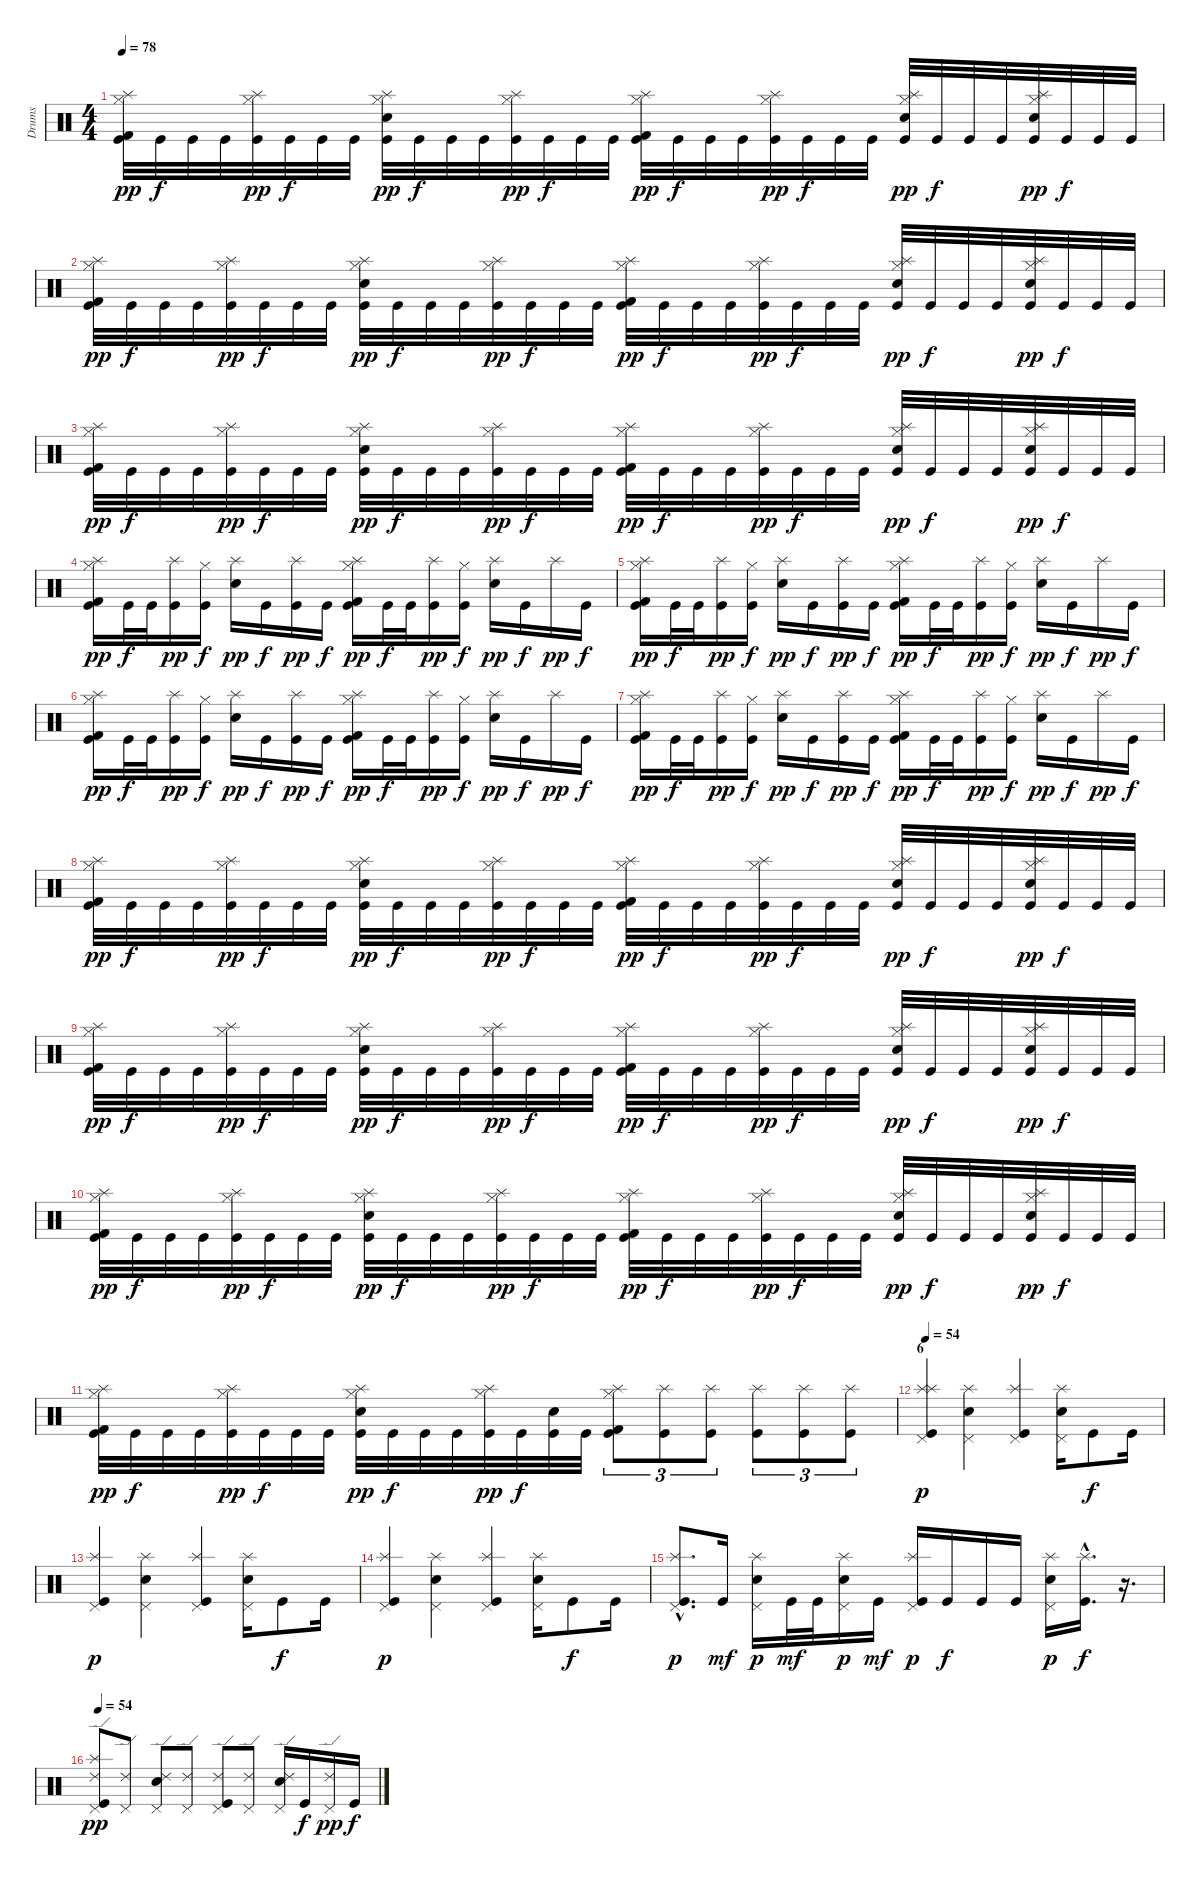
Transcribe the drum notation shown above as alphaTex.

\track ("Drums" "Drums") {instrument percussion}
\staff {score}
\articulation defaults
\ts (4 4)
\tempo 78
\clef neutral
\ks c
("Kick (hit)" "Kick (hit) 2" "Hi-Hat (closed)" "Splash (hit)").32{dy pp} "Kick (hit)".32{dy f} "Kick (hit)".32 "Kick (hit)".32 ("Kick (hit)" "Hi-Hat (closed)" "Splash (hit)").32{dy pp} "Kick (hit)".32{dy f} "Kick (hit)".32 "Kick (hit)".32 ("Kick (hit)" "Electric Snare (hit)" "Hi-Hat (closed)" "Splash (hit)").32{dy pp} "Kick (hit)".32{dy f} "Kick (hit)".32 "Kick (hit)".32 ("Kick (hit)" "Hi-Hat (closed)" "Splash (hit)").32{dy pp} "Kick (hit)".32{dy f} "Kick (hit)".32 "Kick (hit)".32 ("Kick (hit)" "Kick (hit) 2" "Hi-Hat (closed)" "Splash (hit)").32{dy pp} "Kick (hit)".32{dy f} "Kick (hit)".32 "Kick (hit)".32 ("Kick (hit)" "Hi-Hat (closed)" "Splash (hit)").32{dy pp} "Kick (hit)".32{dy f} "Kick (hit)".32 "Kick (hit)".32 ("Kick (hit)" "Electric Snare (hit)" "Hi-Hat (closed)" "Splash (hit)").32{dy pp} "Kick (hit)".32{dy f} "Kick (hit)".32 "Kick (hit)".32 ("Kick (hit)" "Electric Snare (hit)" "Hi-Hat (closed)" "Splash (hit)").32{dy pp} "Kick (hit)".32{dy f} "Kick (hit)".32 "Kick (hit)".32 |
("Kick (hit)" "Kick (hit) 2" "Hi-Hat (closed)" "Splash (hit)").32{dy pp} "Kick (hit)".32{dy f} "Kick (hit)".32 "Kick (hit)".32 ("Kick (hit)" "Hi-Hat (closed)" "Splash (hit)").32{dy pp} "Kick (hit)".32{dy f} "Kick (hit)".32 "Kick (hit)".32 ("Kick (hit)" "Electric Snare (hit)" "Hi-Hat (closed)" "Splash (hit)").32{dy pp} "Kick (hit)".32{dy f} "Kick (hit)".32 "Kick (hit)".32 ("Kick (hit)" "Hi-Hat (closed)" "Splash (hit)").32{dy pp} "Kick (hit)".32{dy f} "Kick (hit)".32 "Kick (hit)".32 ("Kick (hit)" "Kick (hit) 2" "Hi-Hat (closed)" "Splash (hit)").32{dy pp} "Kick (hit)".32{dy f} "Kick (hit)".32 "Kick (hit)".32 ("Kick (hit)" "Hi-Hat (closed)" "Splash (hit)").32{dy pp} "Kick (hit)".32{dy f} "Kick (hit)".32 "Kick (hit)".32 ("Kick (hit)" "Electric Snare (hit)" "Hi-Hat (closed)" "Splash (hit)").32{dy pp} "Kick (hit)".32{dy f} "Kick (hit)".32 "Kick (hit)".32 ("Kick (hit)" "Electric Snare (hit)" "Hi-Hat (closed)" "Splash (hit)").32{dy pp} "Kick (hit)".32{dy f} "Kick (hit)".32 "Kick (hit)".32 |
("Kick (hit)" "Kick (hit) 2" "Hi-Hat (closed)" "Splash (hit)").32{dy pp} "Kick (hit)".32{dy f} "Kick (hit)".32 "Kick (hit)".32 ("Kick (hit)" "Hi-Hat (closed)" "Splash (hit)").32{dy pp} "Kick (hit)".32{dy f} "Kick (hit)".32 "Kick (hit)".32 ("Kick (hit)" "Electric Snare (hit)" "Hi-Hat (closed)" "Splash (hit)").32{dy pp} "Kick (hit)".32{dy f} "Kick (hit)".32 "Kick (hit)".32 ("Kick (hit)" "Hi-Hat (closed)" "Splash (hit)").32{dy pp} "Kick (hit)".32{dy f} "Kick (hit)".32 "Kick (hit)".32 ("Kick (hit)" "Kick (hit) 2" "Hi-Hat (closed)" "Splash (hit)").32{dy pp} "Kick (hit)".32{dy f} "Kick (hit)".32 "Kick (hit)".32 ("Kick (hit)" "Hi-Hat (closed)" "Splash (hit)").32{dy pp} "Kick (hit)".32{dy f} "Kick (hit)".32 "Kick (hit)".32 ("Kick (hit)" "Electric Snare (hit)" "Hi-Hat (closed)" "Splash (hit)").32{dy pp} "Kick (hit)".32{dy f} "Kick (hit)".32 "Kick (hit)".32 ("Kick (hit)" "Electric Snare (hit)" "Hi-Hat (closed)" "Splash (hit)").32{dy pp} "Kick (hit)".32{dy f} "Kick (hit)".32 "Kick (hit)".32 |
("Kick (hit)" "Kick (hit) 2" "Hi-Hat (closed)" "Splash (hit)").16{dy pp} "Kick (hit)".32{dy f} "Kick (hit)".32 ("Kick (hit)" "Splash (hit)").16{dy pp} ("Kick (hit)" "Hi-Hat (closed)").16{dy f} ("Electric Snare (hit)" "Splash (hit)").16{dy pp} "Kick (hit)".16{dy f} ("Kick (hit)" "Splash (hit)").16{dy pp} "Kick (hit)".16{dy f} ("Kick (hit)" "Kick (hit) 2" "Hi-Hat (closed)" "Splash (hit)").16{dy pp} "Kick (hit)".32{dy f} "Kick (hit)".32 ("Kick (hit)" "Splash (hit)").16{dy pp} ("Kick (hit)" "Hi-Hat (closed)").16{dy f} ("Electric Snare (hit)" "Splash (hit)").16{dy pp} "Kick (hit)".16{dy f} "Splash (hit)".16{dy pp} "Kick (hit)".16{dy f} |
("Kick (hit)" "Kick (hit) 2" "Hi-Hat (closed)" "Splash (hit)").16{dy pp} "Kick (hit)".32{dy f} "Kick (hit)".32 ("Kick (hit)" "Splash (hit)").16{dy pp} ("Kick (hit)" "Hi-Hat (closed)").16{dy f} ("Electric Snare (hit)" "Splash (hit)").16{dy pp} "Kick (hit)".16{dy f} ("Kick (hit)" "Splash (hit)").16{dy pp} "Kick (hit)".16{dy f} ("Kick (hit)" "Kick (hit) 2" "Hi-Hat (closed)" "Splash (hit)").16{dy pp} "Kick (hit)".32{dy f} "Kick (hit)".32 ("Kick (hit)" "Splash (hit)").16{dy pp} ("Kick (hit)" "Hi-Hat (closed)").16{dy f} ("Electric Snare (hit)" "Splash (hit)").16{dy pp} "Kick (hit)".16{dy f} "Splash (hit)".16{dy pp} "Kick (hit)".16{dy f} |
("Kick (hit)" "Kick (hit) 2" "Hi-Hat (closed)" "Splash (hit)").16{dy pp} "Kick (hit)".32{dy f} "Kick (hit)".32 ("Kick (hit)" "Splash (hit)").16{dy pp} ("Kick (hit)" "Hi-Hat (closed)").16{dy f} ("Electric Snare (hit)" "Splash (hit)").16{dy pp} "Kick (hit)".16{dy f} ("Kick (hit)" "Splash (hit)").16{dy pp} "Kick (hit)".16{dy f} ("Kick (hit)" "Kick (hit) 2" "Hi-Hat (closed)" "Splash (hit)").16{dy pp} "Kick (hit)".32{dy f} "Kick (hit)".32 ("Kick (hit)" "Splash (hit)").16{dy pp} ("Kick (hit)" "Hi-Hat (closed)").16{dy f} ("Electric Snare (hit)" "Splash (hit)").16{dy pp} "Kick (hit)".16{dy f} "Splash (hit)".16{dy pp} "Kick (hit)".16{dy f} |
("Kick (hit)" "Kick (hit) 2" "Hi-Hat (closed)" "Splash (hit)").16{dy pp} "Kick (hit)".32{dy f} "Kick (hit)".32 ("Kick (hit)" "Splash (hit)").16{dy pp} ("Kick (hit)" "Hi-Hat (closed)").16{dy f} ("Electric Snare (hit)" "Splash (hit)").16{dy pp} "Kick (hit)".16{dy f} ("Kick (hit)" "Splash (hit)").16{dy pp} "Kick (hit)".16{dy f} ("Kick (hit)" "Kick (hit) 2" "Hi-Hat (closed)" "Splash (hit)").16{dy pp} "Kick (hit)".32{dy f} "Kick (hit)".32 ("Kick (hit)" "Splash (hit)").16{dy pp} ("Kick (hit)" "Hi-Hat (closed)").16{dy f} ("Electric Snare (hit)" "Splash (hit)").16{dy pp} "Kick (hit)".16{dy f} "Splash (hit)".16{dy pp} "Kick (hit)".16{dy f} |
("Kick (hit)" "Kick (hit) 2" "Hi-Hat (closed)" "Splash (hit)").32{dy pp} "Kick (hit)".32{dy f} "Kick (hit)".32 "Kick (hit)".32 ("Kick (hit)" "Hi-Hat (closed)" "Splash (hit)").32{dy pp} "Kick (hit)".32{dy f} "Kick (hit)".32 "Kick (hit)".32 ("Kick (hit)" "Electric Snare (hit)" "Hi-Hat (closed)" "Splash (hit)").32{dy pp} "Kick (hit)".32{dy f} "Kick (hit)".32 "Kick (hit)".32 ("Kick (hit)" "Hi-Hat (closed)" "Splash (hit)").32{dy pp} "Kick (hit)".32{dy f} "Kick (hit)".32 "Kick (hit)".32 ("Kick (hit)" "Kick (hit) 2" "Hi-Hat (closed)" "Splash (hit)").32{dy pp} "Kick (hit)".32{dy f} "Kick (hit)".32 "Kick (hit)".32 ("Kick (hit)" "Hi-Hat (closed)" "Splash (hit)").32{dy pp} "Kick (hit)".32{dy f} "Kick (hit)".32 "Kick (hit)".32 ("Kick (hit)" "Electric Snare (hit)" "Hi-Hat (closed)" "Splash (hit)").32{dy pp} "Kick (hit)".32{dy f} "Kick (hit)".32 "Kick (hit)".32 ("Kick (hit)" "Electric Snare (hit)" "Hi-Hat (closed)" "Splash (hit)").32{dy pp} "Kick (hit)".32{dy f} "Kick (hit)".32 "Kick (hit)".32 |
("Kick (hit)" "Kick (hit) 2" "Hi-Hat (closed)" "Splash (hit)").32{dy pp} "Kick (hit)".32{dy f} "Kick (hit)".32 "Kick (hit)".32 ("Kick (hit)" "Hi-Hat (closed)" "Splash (hit)").32{dy pp} "Kick (hit)".32{dy f} "Kick (hit)".32 "Kick (hit)".32 ("Kick (hit)" "Electric Snare (hit)" "Hi-Hat (closed)" "Splash (hit)").32{dy pp} "Kick (hit)".32{dy f} "Kick (hit)".32 "Kick (hit)".32 ("Kick (hit)" "Hi-Hat (closed)" "Splash (hit)").32{dy pp} "Kick (hit)".32{dy f} "Kick (hit)".32 "Kick (hit)".32 ("Kick (hit)" "Kick (hit) 2" "Hi-Hat (closed)" "Splash (hit)").32{dy pp} "Kick (hit)".32{dy f} "Kick (hit)".32 "Kick (hit)".32 ("Kick (hit)" "Hi-Hat (closed)" "Splash (hit)").32{dy pp} "Kick (hit)".32{dy f} "Kick (hit)".32 "Kick (hit)".32 ("Kick (hit)" "Electric Snare (hit)" "Hi-Hat (closed)" "Splash (hit)").32{dy pp} "Kick (hit)".32{dy f} "Kick (hit)".32 "Kick (hit)".32 ("Kick (hit)" "Electric Snare (hit)" "Hi-Hat (closed)" "Splash (hit)").32{dy pp} "Kick (hit)".32{dy f} "Kick (hit)".32 "Kick (hit)".32 |
("Kick (hit)" "Kick (hit) 2" "Hi-Hat (closed)" "Splash (hit)").32{dy pp} "Kick (hit)".32{dy f} "Kick (hit)".32 "Kick (hit)".32 ("Kick (hit)" "Hi-Hat (closed)" "Splash (hit)").32{dy pp} "Kick (hit)".32{dy f} "Kick (hit)".32 "Kick (hit)".32 ("Kick (hit)" "Electric Snare (hit)" "Hi-Hat (closed)" "Splash (hit)").32{dy pp} "Kick (hit)".32{dy f} "Kick (hit)".32 "Kick (hit)".32 ("Kick (hit)" "Hi-Hat (closed)" "Splash (hit)").32{dy pp} "Kick (hit)".32{dy f} "Kick (hit)".32 "Kick (hit)".32 ("Kick (hit)" "Kick (hit) 2" "Hi-Hat (closed)" "Splash (hit)").32{dy pp} "Kick (hit)".32{dy f} "Kick (hit)".32 "Kick (hit)".32 ("Kick (hit)" "Hi-Hat (closed)" "Splash (hit)").32{dy pp} "Kick (hit)".32{dy f} "Kick (hit)".32 "Kick (hit)".32 ("Kick (hit)" "Electric Snare (hit)" "Hi-Hat (closed)" "Splash (hit)").32{dy pp} "Kick (hit)".32{dy f} "Kick (hit)".32 "Kick (hit)".32 ("Kick (hit)" "Electric Snare (hit)" "Hi-Hat (closed)" "Splash (hit)").32{dy pp} "Kick (hit)".32{dy f} "Kick (hit)".32 "Kick (hit)".32 |
("Kick (hit)" "Kick (hit) 2" "Hi-Hat (closed)" "Splash (hit)").32{dy pp} "Kick (hit)".32{dy f} "Kick (hit)".32 "Kick (hit)".32 ("Kick (hit)" "Hi-Hat (closed)" "Splash (hit)").32{dy pp} "Kick (hit)".32{dy f} "Kick (hit)".32 "Kick (hit)".32 ("Kick (hit)" "Electric Snare (hit)" "Hi-Hat (closed)" "Splash (hit)").32{dy pp} "Kick (hit)".32{dy f} "Kick (hit)".32 "Kick (hit)".32 ("Kick (hit)" "Hi-Hat (closed)" "Splash (hit)").32{dy pp} "Kick (hit)".32{dy f} ("Kick (hit)" "Electric Snare (hit)").32 "Kick (hit)".32 ("Kick (hit)" "Kick (hit) 2" "Hi-Hat (closed)" "Splash (hit)").8{tu (3 2)} ("Kick (hit)" "Splash (hit)").8{tu (3 2)} ("Kick (hit)" "Splash (hit)").8{tu (3 2)} ("Kick (hit)" "Splash (hit)").8{tu (3 2)} ("Kick (hit)" "Splash (hit)").8{tu (3 2)} ("Kick (hit)" "Splash (hit)").8{tu (3 2)} |
\section ("" "6")
\tempo 54
("Kick (hit)" "Pedal Hi-Hat (hit)" "Splash (hit)" "Splash (hit)").4{dy p} ("Electric Snare (hit)" "Pedal Hi-Hat (hit)" "Splash (hit)").4 ("Kick (hit)" "Pedal Hi-Hat (hit)" "Splash (hit)").4 ("Electric Snare (hit)" "Pedal Hi-Hat (hit)" "Splash (hit)").16 "Kick (hit)".8{dy f} "Kick (hit)".16 |
("Kick (hit)" "Pedal Hi-Hat (hit)" "Splash (hit)").4{dy p} ("Electric Snare (hit)" "Pedal Hi-Hat (hit)" "Splash (hit)").4 ("Kick (hit)" "Pedal Hi-Hat (hit)" "Splash (hit)").4 ("Electric Snare (hit)" "Pedal Hi-Hat (hit)" "Splash (hit)").16 "Kick (hit)".8{dy f} "Kick (hit)".16 |
("Kick (hit)" "Pedal Hi-Hat (hit)" "Splash (hit)").4{dy p} ("Electric Snare (hit)" "Pedal Hi-Hat (hit)" "Splash (hit)").4 ("Kick (hit)" "Pedal Hi-Hat (hit)" "Splash (hit)").4 ("Electric Snare (hit)" "Pedal Hi-Hat (hit)" "Splash (hit)").16 "Kick (hit)".8{dy f} "Kick (hit)".16 |
("Kick (hit)"{hac} "Pedal Hi-Hat (hit)"{hac} "Splash (hit)"{hac}).8{d dy p} "Kick (hit)".16{dy mf} ("Electric Snare (hit)" "Pedal Hi-Hat (hit)" "Splash (hit)").16{dy p} "Kick (hit)".32{dy mf} "Kick (hit)".32 ("Electric Snare (hit)" "Pedal Hi-Hat (hit)" "Splash (hit)").16{dy p} "Kick (hit)".16{dy mf} ("Kick (hit)" "Pedal Hi-Hat (hit)" "Splash (hit)").16{dy p} "Kick (hit)".16{dy f} "Kick (hit)".16 "Kick (hit)".16 ("Electric Snare (hit)" "Pedal Hi-Hat (hit)" "Splash (hit)").16{dy p} ("Kick (hit)"{hac} "Splash (hit)"{hac}).16{d dy f} r.16{d} |
\tempo 54
("Kick (hit)" "Pedal Hi-Hat (hit)" "Splash (hit)" "Ride (edge) 2").8{dy pp} ("Pedal Hi-Hat (hit)" "Ride (edge) 2").8 ("Electric Snare (hit)" "Pedal Hi-Hat (hit)" "Ride (edge) 2").8 ("Pedal Hi-Hat (hit)" "Ride (edge) 2").8 ("Kick (hit)" "Pedal Hi-Hat (hit)" "Ride (edge) 2").8 ("Pedal Hi-Hat (hit)" "Ride (edge) 2").8 ("Electric Snare (hit)" "Pedal Hi-Hat (hit)" "Ride (edge) 2").16 "Kick (hit)".16{dy f} ("Pedal Hi-Hat (hit)" "Ride (edge) 2").16{dy pp} "Kick (hit)".16{dy f}
